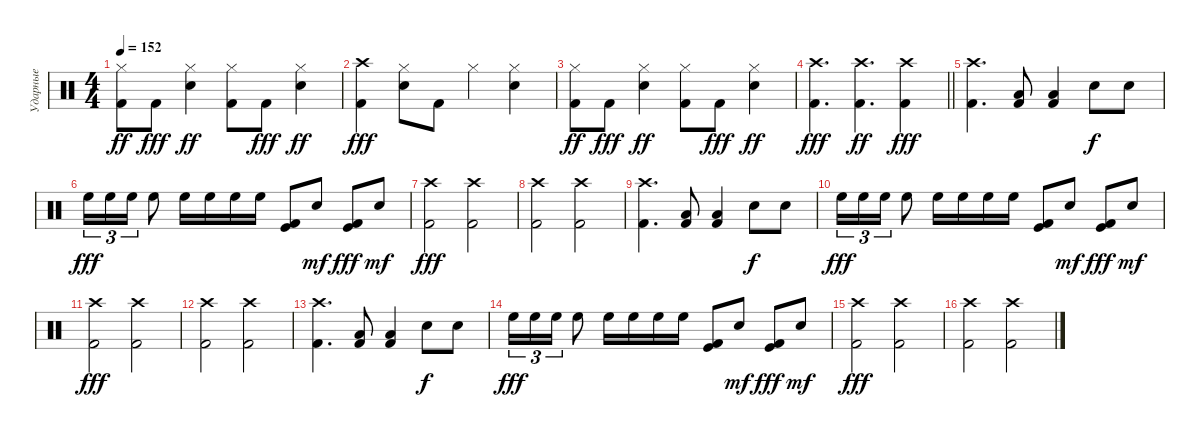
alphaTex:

\track ("Ударные" "Ударные") {instrument percussion}
\staff
\articulation defaults
\ts (4 4)
\tempo 152
\clef neutral
\ks c
("Kick (hit) 2" "Hi-Hat (closed)").8{dy ff} "Kick (hit) 2".8{dy fff} ("Snare (hit) 2" "Hi-Hat (closed)").4{dy ff} ("Kick (hit) 2" "Hi-Hat (closed)").8 "Kick (hit) 2".8{dy fff} ("Snare (hit) 2" "Hi-Hat (closed)").4{dy ff} |
("Kick (hit) 2" "Crash high (hit)").4{dy fff} ("Snare (hit) 2" "Hi-Hat (closed)").8 "Kick (hit) 2".8 "Hi-Hat (closed)".4 ("Snare (hit) 2" "Hi-Hat (closed)").4 |
("Kick (hit) 2" "Hi-Hat (closed)").8{dy ff} "Kick (hit) 2".8{dy fff} ("Snare (hit) 2" "Hi-Hat (closed)").4{dy ff} ("Kick (hit) 2" "Hi-Hat (closed)").8 "Kick (hit) 2".8{dy fff} ("Snare (hit) 2" "Hi-Hat (closed)").4{dy ff} |
\barLineRight lightlight
("Kick (hit) 2" "Crash high (hit)").4{d dy fff} ("Kick (hit) 2" "Crash high (hit)").4{d dy ff} ("Kick (hit) 2" "Crash high (hit)").4{dy fff} |
("Kick (hit) 2" "Crash high (hit)").4{d} ("Kick (hit) 2" "Low Tom (hit)").8 ("Kick (hit) 2" "Low Tom (hit)").4 "Snare (hit) 2".8{dy f} "Snare (hit) 2".8 |
"High Floor Tom (hit)".16{tu (3 2) dy fff} "High Floor Tom (hit)".16{tu (3 2)} "High Floor Tom (hit)".16{tu (3 2)} "High Floor Tom (hit)".8 "High Floor Tom (hit)".16 "High Floor Tom (hit)".16 "High Floor Tom (hit)".16 "High Floor Tom (hit)".16 ("Kick (hit) 2" "Kick (hit)").8 "Electric Snare (hit)".8{dy mf} ("Kick (hit) 2" "Kick (hit)").8{dy fff} "Electric Snare (hit)".8{dy mf} |
("Kick (hit) 2" "Crash high (hit)").2{dy fff} ("Kick (hit) 2" "Crash high (hit)").2 |
("Kick (hit) 2" "Crash high (hit)").2 ("Kick (hit) 2" "Crash high (hit)").2 |
("Kick (hit) 2" "Crash high (hit)").4{d} ("Kick (hit) 2" "Low Tom (hit)").8 ("Kick (hit) 2" "Low Tom (hit)").4 "Snare (hit) 2".8{dy f} "Snare (hit) 2".8 |
"High Floor Tom (hit)".16{tu (3 2) dy fff} "High Floor Tom (hit)".16{tu (3 2)} "High Floor Tom (hit)".16{tu (3 2)} "High Floor Tom (hit)".8 "High Floor Tom (hit)".16 "High Floor Tom (hit)".16 "High Floor Tom (hit)".16 "High Floor Tom (hit)".16 ("Kick (hit) 2" "Kick (hit)").8 "Electric Snare (hit)".8{dy mf} ("Kick (hit) 2" "Kick (hit)").8{dy fff} "Electric Snare (hit)".8{dy mf} |
("Kick (hit) 2" "Crash high (hit)").2{dy fff} ("Kick (hit) 2" "Crash high (hit)").2 |
("Kick (hit) 2" "Crash high (hit)").2 ("Kick (hit) 2" "Crash high (hit)").2 |
("Kick (hit) 2" "Crash high (hit)").4{d} ("Kick (hit) 2" "Low Tom (hit)").8 ("Kick (hit) 2" "Low Tom (hit)").4 "Snare (hit) 2".8{dy f} "Snare (hit) 2".8 |
"High Floor Tom (hit)".16{tu (3 2) dy fff} "High Floor Tom (hit)".16{tu (3 2)} "High Floor Tom (hit)".16{tu (3 2)} "High Floor Tom (hit)".8 "High Floor Tom (hit)".16 "High Floor Tom (hit)".16 "High Floor Tom (hit)".16 "High Floor Tom (hit)".16 ("Kick (hit) 2" "Kick (hit)").8 "Electric Snare (hit)".8{dy mf} ("Kick (hit) 2" "Kick (hit)").8{dy fff} "Electric Snare (hit)".8{dy mf} |
("Kick (hit) 2" "Crash high (hit)").2{dy fff} ("Kick (hit) 2" "Crash high (hit)").2 |
("Kick (hit) 2" "Crash high (hit)").2 ("Kick (hit) 2" "Crash high (hit)").2
